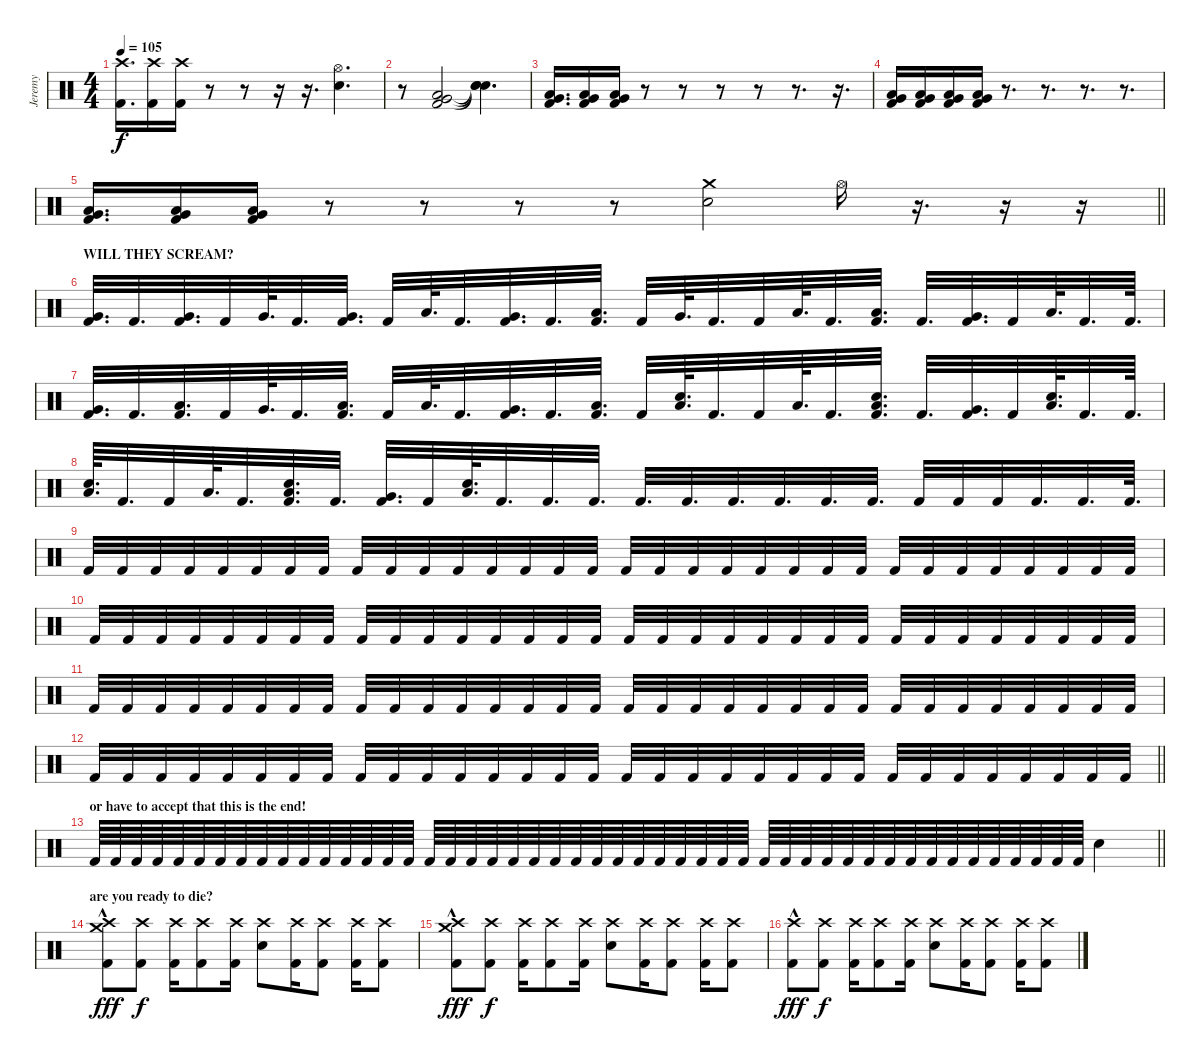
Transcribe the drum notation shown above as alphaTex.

\track ("Jeremy" "Jeremy") {instrument percussion}
\staff {score}
\articulation defaults
\ts (4 4)
\tempo 105
\clef neutral
\ks c
("Crash high (hit)" "Kick (hit) 2").16{d dy f} ("Crash high (hit)" "Kick (hit) 2").16 ("Crash high (hit)" "Kick (hit) 2").16 r.8 r.8 r.16 r.16{d} ("Hi-Hat (open)" "Snare (hit) 2").4{d} |
r.8 ("Very Low Tom (hit)" "Low Tom (hit)" "Kick (hit) 2").2 ("Snare (hit)"{t} "Snare (hit)"{t} "Snare (hit)"{t}).4{d} |
("Low Tom (hit)" "Very Low Tom (hit)" "Kick (hit) 2").16{d} ("Low Tom (hit)" "Very Low Tom (hit)" "Kick (hit) 2").16 ("Low Tom (hit)" "Very Low Tom (hit)" "Kick (hit) 2").16 r.8 r.8 r.8 r.8 r.8{d} r.16{d} |
("Low Tom (hit)" "Very Low Tom (hit)" "Kick (hit) 2").16 ("Low Tom (hit)" "Very Low Tom (hit)" "Kick (hit) 2").16 ("Low Tom (hit)" "Very Low Tom (hit)" "Kick (hit) 2").16 ("Low Tom (hit)" "Very Low Tom (hit)" "Kick (hit) 2").16 r.8{d} r.8{d} r.8{d} r.8{d} |
\barLineRight lightlight
("Low Tom (hit)" "Very Low Tom (hit)" "Kick (hit) 2").16{d} ("Low Tom (hit)" "Very Low Tom (hit)" "Kick (hit) 2").16 ("Low Tom (hit)" "Very Low Tom (hit)" "Kick (hit) 2").16 r.8 r.8 r.8 r.8 ("Crash medium (hit)" "Snare (hit) 2").2 "Hi-Hat (open)".16 r.16{d} r.16 r.16 |
\section ("" "WILL THEY SCREAM?")
("Very Low Tom (hit)" "Kick (hit) 2").32{d} "Kick (hit) 2".32{d} ("Very Low Tom (hit)" "Kick (hit) 2").32{d} "Kick (hit) 2".32 "Very Low Tom (hit)".64{d} "Kick (hit) 2".32{d} ("Very Low Tom (hit)" "Kick (hit) 2").32{d} "Kick (hit) 2".32 "Low Floor Tom (hit)".64{d} "Kick (hit) 2".32{d} ("Very Low Tom (hit)" "Kick (hit) 2").32{d} "Kick (hit) 2".32{d} ("Low Floor Tom (hit)" "Kick (hit) 2").32{d} "Kick (hit) 2".32 "Very Low Tom (hit)".64{d} "Kick (hit) 2".32{d} "Kick (hit) 2".32 "Low Floor Tom (hit)".64{d} "Kick (hit) 2".32{d} ("Low Tom (hit)" "Kick (hit) 2").32{d} "Kick (hit) 2".32{d} ("Very Low Tom (hit)" "Kick (hit) 2").32{d} "Kick (hit) 2".32 "Low Tom (hit)".64{d} "Kick (hit) 2".32{d} "Kick (hit) 2".64{d} |
("Very Low Tom (hit)" "Kick (hit) 2").32{d} "Kick (hit) 2".32{d} ("Low Floor Tom (hit)" "Kick (hit) 2").32{d} "Kick (hit) 2".32 "Very Low Tom (hit)".64{d} "Kick (hit) 2".32{d} ("Low Floor Tom (hit)" "Kick (hit) 2").32{d} "Kick (hit) 2".32 "Low Floor Tom (hit)".64{d} "Kick (hit) 2".32{d} ("Very Low Tom (hit)" "Kick (hit) 2").32{d} "Kick (hit) 2".32{d} ("Low Floor Tom (hit)" "Kick (hit) 2").32{d} "Kick (hit) 2".32 ("Low Floor Tom (hit)" "Snare (hit) 2").64{d} "Kick (hit) 2".32{d} "Kick (hit) 2".32 "Low Floor Tom (hit)".64{d} "Kick (hit) 2".32{d} ("Low Tom (hit)" "Snare (hit) 2" "Kick (hit) 2").32{d} "Kick (hit) 2".32{d} ("Very Low Tom (hit)" "Kick (hit) 2").32{d} "Kick (hit) 2".32 ("Low Tom (hit)" "Snare (hit) 2").64{d} "Kick (hit) 2".32{d} "Kick (hit) 2".64{d} |
("Low Floor Tom (hit)" "Snare (hit) 2").64{d} "Kick (hit) 2".32{d} "Kick (hit) 2".32 "Low Floor Tom (hit)".64{d} "Kick (hit) 2".32{d} ("Low Tom (hit)" "Snare (hit) 2" "Kick (hit) 2").32{d} "Kick (hit) 2".32{d} ("Very Low Tom (hit)" "Kick (hit) 2").32{d} "Kick (hit) 2".32 ("Low Tom (hit)" "Snare (hit) 2").64{d} "Kick (hit) 2".32{d} "Kick (hit) 2".32{d} "Kick (hit) 2".32{d} "Kick (hit) 2".32{d} "Kick (hit) 2".32{d} "Kick (hit) 2".32{d} "Kick (hit) 2".32{d} "Kick (hit) 2".32{d} "Kick (hit) 2".32{d} "Kick (hit) 2".32 "Kick (hit) 2".32 "Kick (hit) 2".32 "Kick (hit) 2".32{d} "Kick (hit) 2".32{d} "Kick (hit) 2".64{d} |
"Kick (hit) 2".32 "Kick (hit) 2".32 "Kick (hit) 2".32 "Kick (hit) 2".32 "Kick (hit) 2".32 "Kick (hit) 2".32 "Kick (hit) 2".32 "Kick (hit) 2".32 "Kick (hit) 2".32 "Kick (hit) 2".32 "Kick (hit) 2".32 "Kick (hit) 2".32 "Kick (hit) 2".32 "Kick (hit) 2".32 "Kick (hit) 2".32 "Kick (hit) 2".32 "Kick (hit) 2".32 "Kick (hit) 2".32 "Kick (hit) 2".32 "Kick (hit) 2".32 "Kick (hit) 2".32 "Kick (hit) 2".32 "Kick (hit) 2".32 "Kick (hit) 2".32 "Kick (hit) 2".32 "Kick (hit) 2".32 "Kick (hit) 2".32 "Kick (hit) 2".32 "Kick (hit) 2".32 "Kick (hit) 2".32 "Kick (hit) 2".32 "Kick (hit) 2".32 |
"Kick (hit) 2".32 "Kick (hit) 2".32 "Kick (hit) 2".32 "Kick (hit) 2".32 "Kick (hit) 2".32 "Kick (hit) 2".32 "Kick (hit) 2".32 "Kick (hit) 2".32 "Kick (hit) 2".32 "Kick (hit) 2".32 "Kick (hit) 2".32 "Kick (hit) 2".32 "Kick (hit) 2".32 "Kick (hit) 2".32 "Kick (hit) 2".32 "Kick (hit) 2".32 "Kick (hit) 2".32 "Kick (hit) 2".32 "Kick (hit) 2".32 "Kick (hit) 2".32 "Kick (hit) 2".32 "Kick (hit) 2".32 "Kick (hit) 2".32 "Kick (hit) 2".32 "Kick (hit) 2".32 "Kick (hit) 2".32 "Kick (hit) 2".32 "Kick (hit) 2".32 "Kick (hit) 2".32 "Kick (hit) 2".32 "Kick (hit) 2".32 "Kick (hit) 2".32 |
"Kick (hit) 2".32 "Kick (hit) 2".32 "Kick (hit) 2".32 "Kick (hit) 2".32 "Kick (hit) 2".32 "Kick (hit) 2".32 "Kick (hit) 2".32 "Kick (hit) 2".32 "Kick (hit) 2".32 "Kick (hit) 2".32 "Kick (hit) 2".32 "Kick (hit) 2".32 "Kick (hit) 2".32 "Kick (hit) 2".32 "Kick (hit) 2".32 "Kick (hit) 2".32 "Kick (hit) 2".32 "Kick (hit) 2".32 "Kick (hit) 2".32 "Kick (hit) 2".32 "Kick (hit) 2".32 "Kick (hit) 2".32 "Kick (hit) 2".32 "Kick (hit) 2".32 "Kick (hit) 2".32 "Kick (hit) 2".32 "Kick (hit) 2".32 "Kick (hit) 2".32 "Kick (hit) 2".32 "Kick (hit) 2".32 "Kick (hit) 2".32 "Kick (hit) 2".32 |
\barLineRight lightlight "Kick (hit) 2".32 "Kick (hit) 2".32 "Kick (hit) 2".32 "Kick (hit) 2".32 "Kick (hit) 2".32 "Kick (hit) 2".32 "Kick (hit) 2".32 "Kick (hit) 2".32 "Kick (hit) 2".32 "Kick (hit) 2".32 "Kick (hit) 2".32 "Kick (hit) 2".32 "Kick (hit) 2".32 "Kick (hit) 2".32 "Kick (hit) 2".32 "Kick (hit) 2".32 "Kick (hit) 2".32 "Kick (hit) 2".32 "Kick (hit) 2".32 "Kick (hit) 2".32 "Kick (hit) 2".32 "Kick (hit) 2".32 "Kick (hit) 2".32 "Kick (hit) 2".32 "Kick (hit) 2".32 "Kick (hit) 2".32 "Kick (hit) 2".32 "Kick (hit) 2".32 "Kick (hit) 2".32 "Kick (hit) 2".32 "Kick (hit) 2".32 "Kick (hit) 2".32
|
\section ("" "or have to accept that this is the end!")
\barLineRight lightlight "Kick (hit) 2".64 "Kick (hit) 2".64 "Kick (hit) 2".64 "Kick (hit) 2".64 "Kick (hit) 2".64 "Kick (hit) 2".64 "Kick (hit) 2".64 "Kick (hit) 2".64 "Kick (hit) 2".64 "Kick (hit) 2".64 "Kick (hit) 2".64 "Kick (hit) 2".64 "Kick (hit) 2".64 "Kick (hit) 2".64 "Kick (hit) 2".64 "Kick (hit) 2".64 "Kick (hit) 2".64 "Kick (hit) 2".64 "Kick (hit) 2".64 "Kick (hit) 2".64 "Kick (hit) 2".64 "Kick (hit) 2".64 "Kick (hit) 2".64 "Kick (hit) 2".64 "Kick (hit) 2".64 "Kick (hit) 2".64 "Kick (hit) 2".64 "Kick (hit) 2".64 "Kick (hit) 2".64 "Kick (hit) 2".64 "Kick (hit) 2".64 "Kick (hit) 2".64 "Kick (hit) 2".64 "Kick (hit) 2".64 "Kick (hit) 2".64 "Kick (hit) 2".64 "Kick (hit) 2".64 "Kick (hit) 2".64 "Kick (hit) 2".64 "Kick (hit) 2".64 "Kick (hit) 2".64 "Kick (hit) 2".64 "Kick (hit) 2".64 "Kick (hit) 2".64 "Kick (hit) 2".64 "Kick (hit) 2".64 "Kick (hit) 2".64 "Kick (hit) 2".64 "Snare (hit) 2".4
|
\section ("" "are you ready to die?")
("Crash high (hit)" "Crash medium (hit)" "Kick (hit) 2"{hac}).8{dy fff} ("Crash high (hit)" "Kick (hit) 2").8{dy f} ("Crash high (hit)" "Kick (hit) 2").16 ("Crash high (hit)" "Kick (hit) 2").8 ("Crash high (hit)" "Kick (hit) 2").16 ("Crash high (hit)" "Snare (hit) 2").8 ("Crash high (hit)" "Kick (hit) 2").16 ("Crash high (hit)" "Kick (hit) 2").8 ("Crash high (hit)" "Kick (hit) 2").16 ("Crash high (hit)" "Kick (hit) 2").8 |
("Crash high (hit)" "Crash medium (hit)" "Kick (hit) 2"{hac}).8{dy fff} ("Crash high (hit)" "Kick (hit) 2").8{dy f} ("Crash high (hit)" "Kick (hit) 2").16 ("Crash high (hit)" "Kick (hit) 2").8 ("Crash high (hit)" "Kick (hit) 2").16 ("Crash high (hit)" "Snare (hit) 2").8 ("Crash high (hit)" "Kick (hit) 2").16 ("Crash high (hit)" "Kick (hit) 2").8 ("Crash high (hit)" "Kick (hit) 2").16 ("Crash high (hit)" "Kick (hit) 2").8 |
("Crash high (hit)" "Kick (hit) 2"{hac}).8{dy fff} ("Crash high (hit)" "Kick (hit) 2").8{dy f} ("Crash high (hit)" "Kick (hit) 2").16 ("Crash high (hit)" "Kick (hit) 2").8 ("Crash high (hit)" "Kick (hit) 2").16 ("Crash high (hit)" "Snare (hit) 2").8 ("Crash high (hit)" "Kick (hit) 2").16 ("Crash high (hit)" "Kick (hit) 2").8 ("Crash high (hit)" "Kick (hit) 2").16 ("Crash high (hit)" "Kick (hit) 2").8
